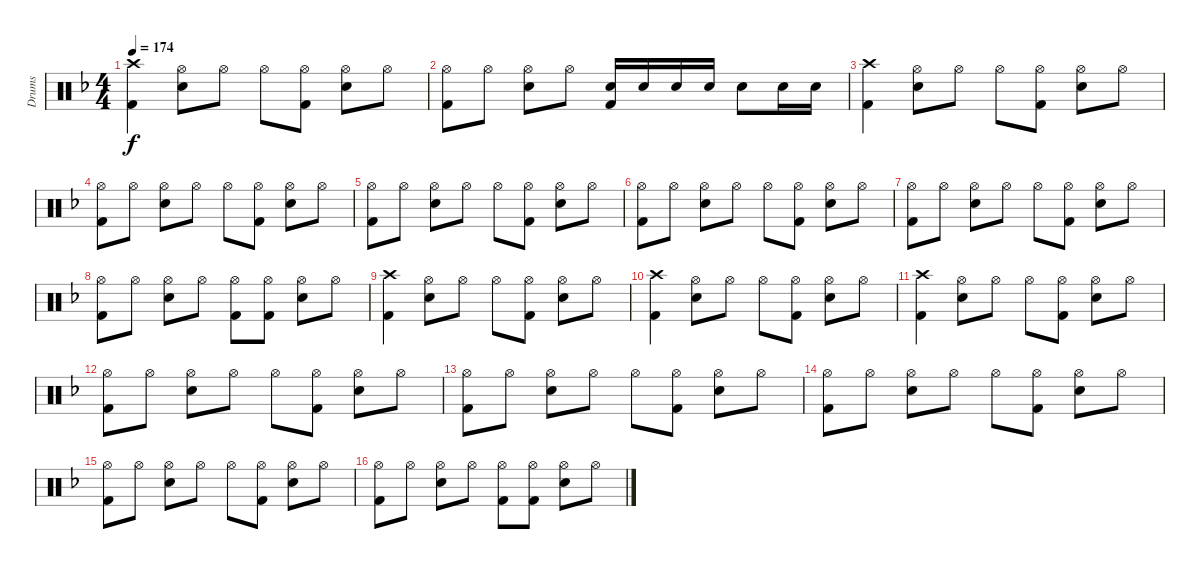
\track ("Drums" "Drums") {instrument percussion}
\staff {score}
\articulation defaults
\ts (4 4)
\tempo 174
\clef neutral
\ks dminor
("Kick (hit) 2" "Crash high (hit)").4{dy f} ("Snare (hit) 2" "Hi-Hat (open)").8 "Hi-Hat (open)".8 "Hi-Hat (open)".8 ("Kick (hit) 2" "Hi-Hat (open)").8 ("Snare (hit) 2" "Hi-Hat (open)").8 "Hi-Hat (open)".8 |
("Kick (hit) 2" "Hi-Hat (open)").8 "Hi-Hat (open)".8 ("Snare (hit) 2" "Hi-Hat (open)").8 "Hi-Hat (open)".8 ("Kick (hit) 2" "Snare (hit) 2").16 "Snare (hit) 2".16 "Snare (hit) 2".16 "Snare (hit) 2".16 "Snare (hit) 2".8 "Snare (hit) 2".16 "Snare (hit) 2".16 |
("Kick (hit) 2" "Crash high (hit)").4 ("Snare (hit) 2" "Hi-Hat (open)").8 "Hi-Hat (open)".8 "Hi-Hat (open)".8 ("Kick (hit) 2" "Hi-Hat (open)").8 ("Snare (hit) 2" "Hi-Hat (open)").8 "Hi-Hat (open)".8 |
("Kick (hit) 2" "Hi-Hat (open)").8 "Hi-Hat (open)".8 ("Snare (hit) 2" "Hi-Hat (open)").8 "Hi-Hat (open)".8 "Hi-Hat (open)".8 ("Kick (hit) 2" "Hi-Hat (open)").8 ("Snare (hit) 2" "Hi-Hat (open)").8 "Hi-Hat (open)".8 |
("Kick (hit) 2" "Hi-Hat (open)").8 "Hi-Hat (open)".8 ("Snare (hit) 2" "Hi-Hat (open)").8 "Hi-Hat (open)".8 "Hi-Hat (open)".8 ("Kick (hit) 2" "Hi-Hat (open)").8 ("Snare (hit) 2" "Hi-Hat (open)").8 "Hi-Hat (open)".8 |
("Kick (hit) 2" "Hi-Hat (open)").8 "Hi-Hat (open)".8 ("Snare (hit) 2" "Hi-Hat (open)").8 "Hi-Hat (open)".8 "Hi-Hat (open)".8 ("Kick (hit) 2" "Hi-Hat (open)").8 ("Snare (hit) 2" "Hi-Hat (open)").8 "Hi-Hat (open)".8 |
("Kick (hit) 2" "Hi-Hat (open)").8 "Hi-Hat (open)".8 ("Snare (hit) 2" "Hi-Hat (open)").8 "Hi-Hat (open)".8 "Hi-Hat (open)".8 ("Kick (hit) 2" "Hi-Hat (open)").8 ("Snare (hit) 2" "Hi-Hat (open)").8 "Hi-Hat (open)".8 |
("Kick (hit) 2" "Hi-Hat (open)").8 "Hi-Hat (open)".8 ("Snare (hit) 2" "Hi-Hat (open)").8 "Hi-Hat (open)".8 ("Kick (hit) 2" "Hi-Hat (open)").8 ("Kick (hit) 2" "Hi-Hat (open)").8 ("Snare (hit) 2" "Hi-Hat (open)").8 "Hi-Hat (open)".8 |
("Kick (hit) 2" "Crash high (hit)").4 ("Snare (hit) 2" "Hi-Hat (open)").8 "Hi-Hat (open)".8 "Hi-Hat (open)".8 ("Kick (hit) 2" "Hi-Hat (open)").8 ("Snare (hit) 2" "Hi-Hat (open)").8 "Hi-Hat (open)".8 |
("Kick (hit) 2" "Crash high (hit)").4 ("Snare (hit) 2" "Hi-Hat (open)").8 "Hi-Hat (open)".8 "Hi-Hat (open)".8 ("Kick (hit) 2" "Hi-Hat (open)").8 ("Snare (hit) 2" "Hi-Hat (open)").8 "Hi-Hat (open)".8 |
("Kick (hit) 2" "Crash high (hit)").4 ("Snare (hit) 2" "Hi-Hat (open)").8 "Hi-Hat (open)".8 "Hi-Hat (open)".8 ("Kick (hit) 2" "Hi-Hat (open)").8 ("Snare (hit) 2" "Hi-Hat (open)").8 "Hi-Hat (open)".8 |
("Kick (hit) 2" "Hi-Hat (open)").8 "Hi-Hat (open)".8 ("Snare (hit) 2" "Hi-Hat (open)").8 "Hi-Hat (open)".8 "Hi-Hat (open)".8 ("Kick (hit) 2" "Hi-Hat (open)").8 ("Snare (hit) 2" "Hi-Hat (open)").8 "Hi-Hat (open)".8 |
("Kick (hit) 2" "Hi-Hat (open)").8 "Hi-Hat (open)".8 ("Snare (hit) 2" "Hi-Hat (open)").8 "Hi-Hat (open)".8 "Hi-Hat (open)".8 ("Kick (hit) 2" "Hi-Hat (open)").8 ("Snare (hit) 2" "Hi-Hat (open)").8 "Hi-Hat (open)".8 |
("Kick (hit) 2" "Hi-Hat (open)").8 "Hi-Hat (open)".8 ("Snare (hit) 2" "Hi-Hat (open)").8 "Hi-Hat (open)".8 "Hi-Hat (open)".8 ("Kick (hit) 2" "Hi-Hat (open)").8 ("Snare (hit) 2" "Hi-Hat (open)").8 "Hi-Hat (open)".8 |
("Kick (hit) 2" "Hi-Hat (open)").8 "Hi-Hat (open)".8 ("Snare (hit) 2" "Hi-Hat (open)").8 "Hi-Hat (open)".8 "Hi-Hat (open)".8 ("Kick (hit) 2" "Hi-Hat (open)").8 ("Snare (hit) 2" "Hi-Hat (open)").8 "Hi-Hat (open)".8 |
("Kick (hit) 2" "Hi-Hat (open)").8 "Hi-Hat (open)".8 ("Snare (hit) 2" "Hi-Hat (open)").8 "Hi-Hat (open)".8 ("Kick (hit) 2" "Hi-Hat (open)").8 ("Kick (hit) 2" "Hi-Hat (open)").8 ("Snare (hit) 2" "Hi-Hat (open)").8 "Hi-Hat (open)".8
